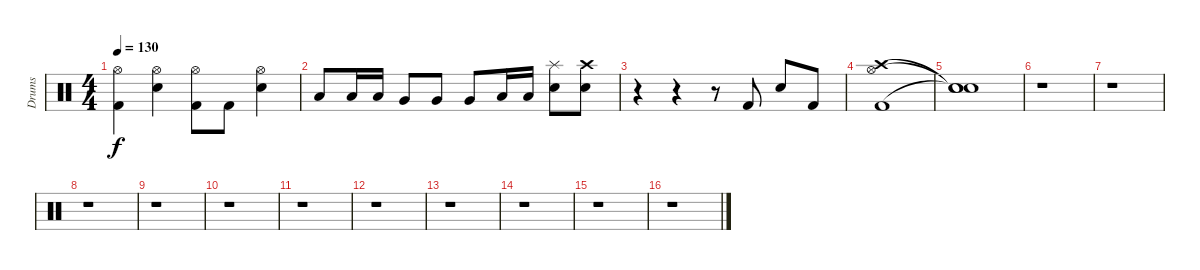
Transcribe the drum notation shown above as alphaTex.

\track ("Drums" "Drums") {instrument percussion}
\staff {score}
\articulation defaults
\ts (4 4)
\tempo 130
\clef neutral
\ks c
("Kick (hit) 2" "Hi-Hat (open)").4{dy f} ("Snare (hit) 2" "Hi-Hat (open)").4 ("Kick (hit) 2" "Hi-Hat (open)").8 "Kick (hit) 2".8 ("Snare (hit) 2" "Hi-Hat (open)").4 |
"Low Tom (hit)".8 "Low Tom (hit)".16 "Low Tom (hit)".16 "Very Low Tom (hit)".8 "Very Low Tom (hit)".8 "Very Low Tom (hit)".8 "Low Floor Tom (hit)".16 "Low Floor Tom (hit)".16 ("Splash (hit)" "Snare (hit) 2").8 ("Crash high (hit)" "Snare (hit) 2").8 |
r.4 r.4 r.8 "Kick (hit) 2".8 "Snare (hit) 2".8 "Kick (hit) 2".8 |
("Kick (hit) 2" "Hi-Hat (open)" "Crash high (hit)").1 |
("Snare (hit)"{t} "Snare (hit)"{t} "Snare (hit)"{t}).1 |
r.1 |
r.1 |
r.1 |
r.1 |
r.1 |
r.1 |
r.1 |
r.1 |
r.1 |
r.1 |
r.1
